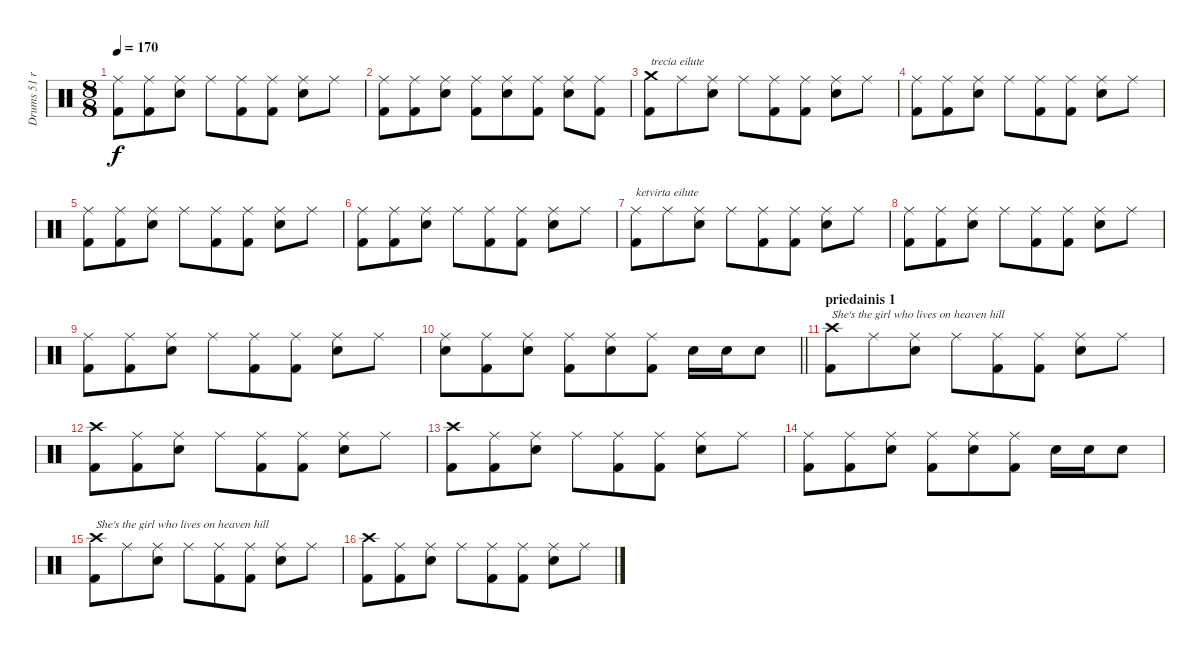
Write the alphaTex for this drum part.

\track ("Drums 51 ride ALBUM" "Drums 51 r") {mute instrument percussion}
\staff {score}
\articulation defaults
\ts (8 8)
\tempo 170
\clef neutral
\ks c
("Ride (middle)" "Kick (hit) 2").8{dy f} ("Ride (middle)" "Kick (hit) 2").8 ("Ride (middle)" "Snare (hit) 2").8 "Ride (middle)".8 ("Ride (middle)" "Kick (hit) 2").8 ("Ride (middle)" "Kick (hit) 2").8 ("Ride (middle)" "Snare (hit) 2").8 "Ride (middle)".8 |
("Ride (middle)" "Kick (hit) 2").8 ("Ride (middle)" "Kick (hit) 2").8 ("Ride (middle)" "Snare (hit) 2").8 ("Ride (middle)" "Kick (hit) 2").8 ("Ride (middle)" "Snare (hit) 2").8 ("Ride (middle)" "Kick (hit) 2").8 ("Ride (middle)" "Snare (hit) 2").8 ("Ride (middle)" "Kick (hit) 2").8 |
("Crash medium (hit)" "Kick (hit) 2").8{txt "trecia eilute"} "Ride (middle)".8 ("Ride (middle)" "Snare (hit) 2").8 "Ride (middle)".8 ("Ride (middle)" "Kick (hit) 2").8 ("Ride (middle)" "Kick (hit) 2").8 ("Ride (middle)" "Snare (hit) 2").8 "Ride (middle)".8 |
("Ride (middle)" "Kick (hit) 2").8 ("Ride (middle)" "Kick (hit) 2").8 ("Ride (middle)" "Snare (hit) 2").8 "Ride (middle)".8 ("Ride (middle)" "Kick (hit) 2").8 ("Ride (middle)" "Kick (hit) 2").8 ("Ride (middle)" "Snare (hit) 2").8 "Ride (middle)".8 |
("Ride (middle)" "Kick (hit) 2").8 ("Ride (middle)" "Kick (hit) 2").8 ("Ride (middle)" "Snare (hit) 2").8 "Ride (middle)".8 ("Ride (middle)" "Kick (hit) 2").8 ("Ride (middle)" "Kick (hit) 2").8 ("Ride (middle)" "Snare (hit) 2").8 "Ride (middle)".8 |
("Ride (middle)" "Kick (hit) 2").8 ("Ride (middle)" "Kick (hit) 2").8 ("Ride (middle)" "Snare (hit) 2").8 "Ride (middle)".8 ("Ride (middle)" "Kick (hit) 2").8 ("Ride (middle)" "Kick (hit) 2").8 ("Ride (middle)" "Snare (hit) 2").8 "Ride (middle)".8 |
("Ride (middle)" "Kick (hit) 2").8{txt "ketvirta eilute"} "Ride (middle)".8 ("Ride (middle)" "Snare (hit) 2").8 "Ride (middle)".8 ("Ride (middle)" "Kick (hit) 2").8 ("Ride (middle)" "Kick (hit) 2").8 ("Ride (middle)" "Snare (hit) 2").8 "Ride (middle)".8 |
("Ride (middle)" "Kick (hit) 2").8 ("Ride (middle)" "Kick (hit) 2").8 ("Ride (middle)" "Snare (hit) 2").8 "Ride (middle)".8 ("Ride (middle)" "Kick (hit) 2").8 ("Ride (middle)" "Kick (hit) 2").8 ("Ride (middle)" "Snare (hit) 2").8 "Ride (middle)".8 |
("Ride (middle)" "Kick (hit) 2").8 ("Ride (middle)" "Kick (hit) 2").8 ("Ride (middle)" "Snare (hit) 2").8 "Ride (middle)".8 ("Ride (middle)" "Kick (hit) 2").8 ("Ride (middle)" "Kick (hit) 2").8 ("Ride (middle)" "Snare (hit) 2").8 "Ride (middle)".8 |
\barLineRight lightlight
("Ride (middle)" "Snare (hit) 2").8 ("Ride (middle)" "Kick (hit) 2").8 ("Ride (middle)" "Snare (hit) 2").8 ("Ride (middle)" "Kick (hit) 2").8 ("Ride (middle)" "Snare (hit) 2").8 ("Ride (middle)" "Kick (hit) 2").8 "Snare (hit) 2".16 "Snare (hit) 2".16 "Snare (hit) 2".8 |
\section ("" "priedainis 1")
("Crash high (hit)" "Kick (hit) 2").8{txt "She's the girl who lives on heaven hill"} "Ride (middle)".8 ("Ride (middle)" "Snare (hit) 2").8 "Ride (middle)".8 ("Ride (middle)" "Kick (hit) 2").8 ("Ride (middle)" "Kick (hit) 2").8 ("Ride (middle)" "Snare (hit) 2").8 "Ride (middle)".8 |
("Crash high (hit)" "Kick (hit) 2").8 ("Ride (middle)" "Kick (hit) 2").8 ("Ride (middle)" "Snare (hit) 2").8 "Ride (middle)".8 ("Ride (middle)" "Kick (hit) 2").8 ("Ride (middle)" "Kick (hit) 2").8 ("Ride (middle)" "Snare (hit) 2").8 "Ride (middle)".8 |
("Crash high (hit)" "Kick (hit) 2").8 ("Ride (middle)" "Kick (hit) 2").8 ("Ride (middle)" "Snare (hit) 2").8 "Ride (middle)".8 ("Ride (middle)" "Kick (hit) 2").8 ("Ride (middle)" "Kick (hit) 2").8 ("Ride (middle)" "Snare (hit) 2").8 "Ride (middle)".8 |
("Ride (middle)" "Kick (hit) 2").8 ("Ride (middle)" "Kick (hit) 2").8 ("Ride (middle)" "Snare (hit) 2").8 ("Ride (middle)" "Kick (hit) 2").8 ("Ride (middle)" "Snare (hit) 2").8 ("Ride (middle)" "Kick (hit) 2").8 "Snare (hit) 2".16 "Snare (hit) 2".16 "Snare (hit) 2".8 |
("Crash high (hit)" "Kick (hit) 2").8{txt "She's the girl who lives on heaven hill"} "Ride (middle)".8 ("Ride (middle)" "Snare (hit) 2").8 "Ride (middle)".8 ("Ride (middle)" "Kick (hit) 2").8 ("Ride (middle)" "Kick (hit) 2").8 ("Ride (middle)" "Snare (hit) 2").8 "Ride (middle)".8 |
("Crash high (hit)" "Kick (hit) 2").8 ("Ride (middle)" "Kick (hit) 2").8 ("Ride (middle)" "Snare (hit) 2").8 "Ride (middle)".8 ("Ride (middle)" "Kick (hit) 2").8 ("Ride (middle)" "Kick (hit) 2").8 ("Ride (middle)" "Snare (hit) 2").8 "Ride (middle)".8
